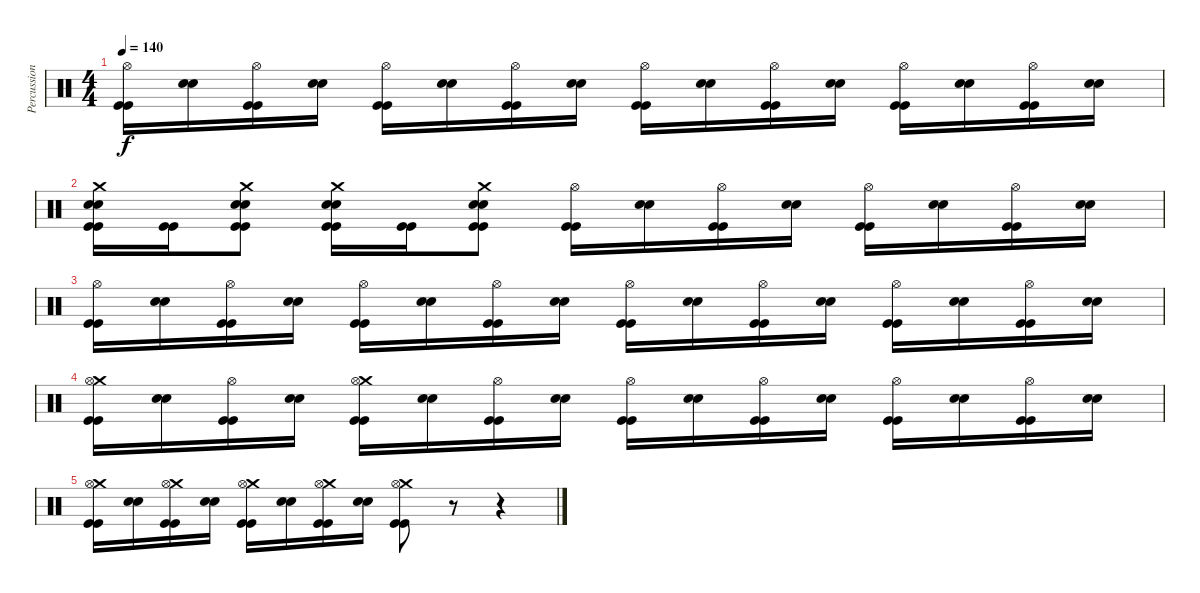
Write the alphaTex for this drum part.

\track ("Percussion" "Percussion") {instrument percussion}
\staff {score}
\articulation defaults
\ts (4 4)
\tempo 140
\clef neutral
\ks c
("Hi-Hat (open)" "Kick (hit)" "Kick (hit)").16{dy f} ("Snare (hit) 2" "Snare (hit) 2").16 ("Hi-Hat (open)" "Kick (hit)" "Kick (hit)").16 ("Snare (hit) 2" "Snare (hit) 2").16 ("Hi-Hat (open)" "Kick (hit)" "Kick (hit)").16 ("Snare (hit) 2" "Snare (hit) 2").16 ("Hi-Hat (open)" "Kick (hit)" "Kick (hit)").16 ("Snare (hit) 2" "Snare (hit) 2").16 ("Hi-Hat (open)" "Kick (hit)" "Kick (hit)").16 ("Snare (hit) 2" "Snare (hit) 2").16 ("Hi-Hat (open)" "Kick (hit)" "Kick (hit)").16 ("Snare (hit) 2" "Snare (hit) 2").16 ("Hi-Hat (open)" "Kick (hit)" "Kick (hit)").16 ("Snare (hit) 2" "Snare (hit) 2").16 ("Hi-Hat (open)" "Kick (hit)" "Kick (hit)").16 ("Snare (hit) 2" "Snare (hit) 2").16 |
("Crash medium (hit)" "Snare (hit) 2" "Snare (hit) 2" "Kick (hit)" "Kick (hit)").16 ("Kick (hit)" "Kick (hit)").16 ("Crash medium (hit)" "Snare (hit) 2" "Snare (hit) 2" "Kick (hit)" "Kick (hit)").8 ("Crash medium (hit)" "Snare (hit) 2" "Snare (hit) 2" "Kick (hit)" "Kick (hit)").16 ("Kick (hit)" "Kick (hit)").16 ("Crash medium (hit)" "Snare (hit) 2" "Snare (hit) 2" "Kick (hit)" "Kick (hit)").8 ("Hi-Hat (open)" "Kick (hit)" "Kick (hit)").16 ("Snare (hit) 2" "Snare (hit) 2").16 ("Hi-Hat (open)" "Kick (hit)" "Kick (hit)").16 ("Snare (hit) 2" "Snare (hit) 2").16 ("Hi-Hat (open)" "Kick (hit)" "Kick (hit)").16 ("Snare (hit) 2" "Snare (hit) 2").16 ("Hi-Hat (open)" "Kick (hit)" "Kick (hit)").16 ("Snare (hit) 2" "Snare (hit) 2").16 |
("Hi-Hat (open)" "Kick (hit)" "Kick (hit)").16 ("Snare (hit) 2" "Snare (hit) 2").16 ("Hi-Hat (open)" "Kick (hit)" "Kick (hit)").16 ("Snare (hit) 2" "Snare (hit) 2").16 ("Hi-Hat (open)" "Kick (hit)" "Kick (hit)").16 ("Snare (hit) 2" "Snare (hit) 2").16 ("Hi-Hat (open)" "Kick (hit)" "Kick (hit)").16 ("Snare (hit) 2" "Snare (hit) 2").16 ("Hi-Hat (open)" "Kick (hit)" "Kick (hit)").16 ("Snare (hit) 2" "Snare (hit) 2").16 ("Hi-Hat (open)" "Kick (hit)" "Kick (hit)").16 ("Snare (hit) 2" "Snare (hit) 2").16 ("Hi-Hat (open)" "Kick (hit)" "Kick (hit)").16 ("Snare (hit) 2" "Snare (hit) 2").16 ("Hi-Hat (open)" "Kick (hit)" "Kick (hit)").16 ("Snare (hit) 2" "Snare (hit) 2").16 |
("Crash medium (hit)" "Hi-Hat (open)" "Kick (hit)" "Kick (hit)").16 ("Snare (hit) 2" "Snare (hit) 2").16 ("Hi-Hat (open)" "Kick (hit)" "Kick (hit)").16 ("Snare (hit) 2" "Snare (hit) 2").16 ("Crash medium (hit)" "Hi-Hat (open)" "Kick (hit)" "Kick (hit)").16 ("Snare (hit) 2" "Snare (hit) 2").16 ("Hi-Hat (open)" "Kick (hit)" "Kick (hit)").16 ("Snare (hit) 2" "Snare (hit) 2").16 ("Hi-Hat (open)" "Kick (hit)" "Kick (hit)").16 ("Snare (hit) 2" "Snare (hit) 2").16 ("Hi-Hat (open)" "Kick (hit)" "Kick (hit)").16 ("Snare (hit) 2" "Snare (hit) 2").16 ("Hi-Hat (open)" "Kick (hit)" "Kick (hit)").16 ("Snare (hit) 2" "Snare (hit) 2").16 ("Hi-Hat (open)" "Kick (hit)" "Kick (hit)").16 ("Snare (hit) 2" "Snare (hit) 2").16 |
("Crash medium (hit)" "Hi-Hat (open)" "Kick (hit)" "Kick (hit)").16 ("Snare (hit) 2" "Snare (hit) 2").16 ("Crash medium (hit)" "Hi-Hat (open)" "Kick (hit)" "Kick (hit)").16 ("Snare (hit) 2" "Snare (hit) 2").16 ("Crash medium (hit)" "Hi-Hat (open)" "Kick (hit)" "Kick (hit)").16 ("Snare (hit) 2" "Snare (hit) 2").16 ("Crash medium (hit)" "Hi-Hat (open)" "Kick (hit)" "Kick (hit)").16 ("Snare (hit) 2" "Snare (hit) 2").16 ("Crash medium (hit)" "Hi-Hat (open)" "Kick (hit)" "Kick (hit)").8 r.8 r.4
